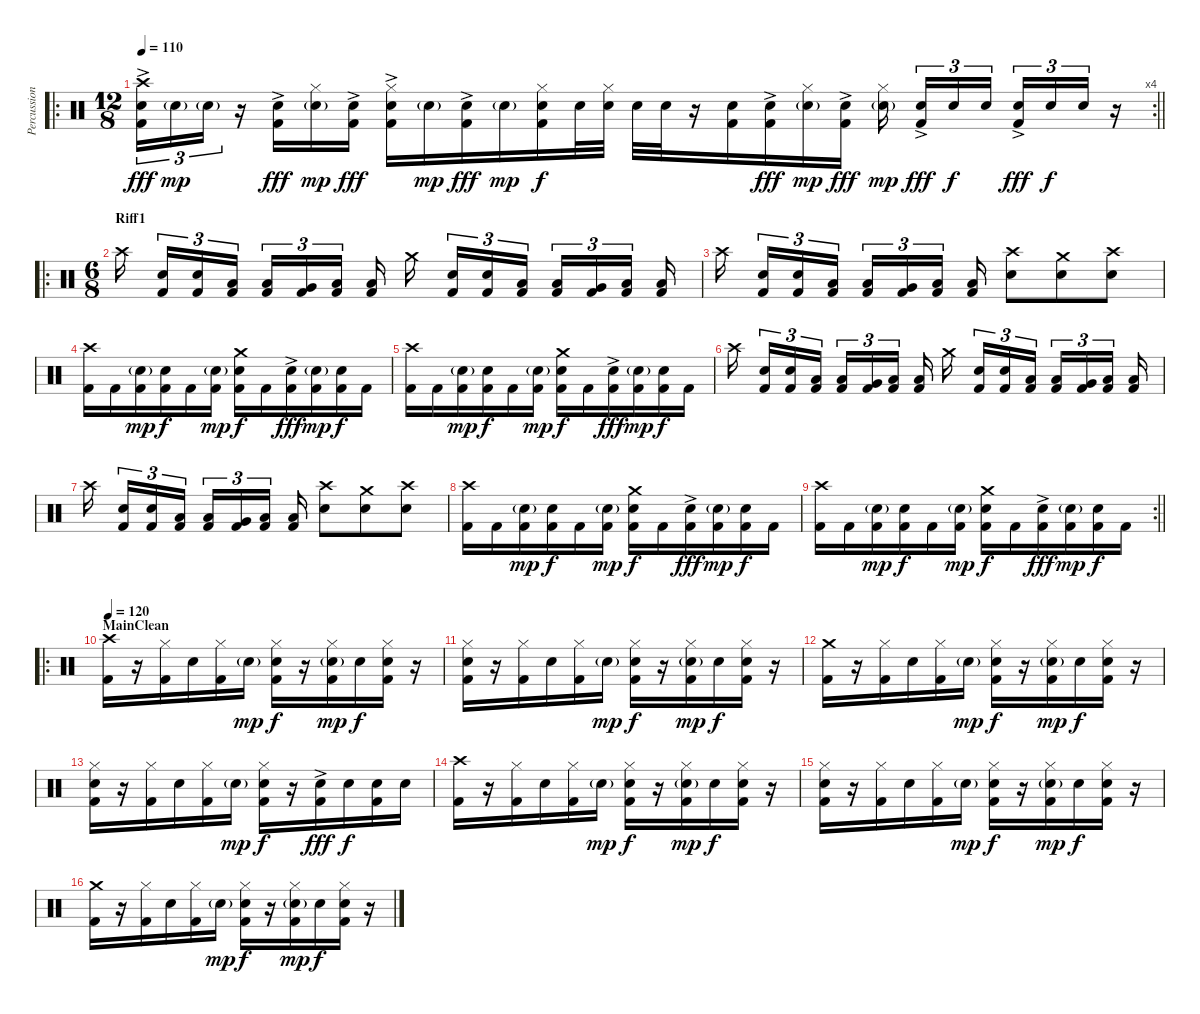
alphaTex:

\track ("Percussion" "Percussion") {instrument percussion}
\staff {score}
\articulation defaults
\ro
\rc 4
\ts (12 8)
\tempo 110
\clef neutral
\barLineRight lightlight
\ks c
("Crash high (hit)" "Snare (hit) 2"{ac} "Kick (hit) 2").16{tu (3 2) dy fff} "Snare (hit) 2"{g}.16{tu (3 2) dy mp} "Snare (hit) 2"{g}.16{tu (3 2)} r.16 ("Snare (hit) 2"{ac} "Kick (hit) 2").16{dy fff} ("Hi-Hat (closed)" "Snare (hit) 2"{g}).16{dy mp} ("Snare (hit) 2"{ac} "Kick (hit) 2").16{dy fff} ("Hi-Hat (closed)" "Snare (hit) 2"{ac} "Kick (hit) 2").16 "Snare (hit) 2"{g}.16{dy mp} ("Snare (hit) 2"{ac} "Kick (hit) 2").16{dy fff} "Snare (hit) 2"{g}.16{dy mp} ("Hi-Hat (closed)" "Snare (hit) 2" "Kick (hit) 2").16{dy f} "Snare (hit) 2".32 ("Hi-Hat (closed)" "Snare (hit) 2").32 "Snare (hit) 2".32 "Snare (hit) 2".32 r.16 ("Snare (hit) 2" "Kick (hit) 2").16 ("Snare (hit) 2"{ac} "Kick (hit) 2").16{dy fff} ("Hi-Hat (closed)" "Snare (hit) 2"{g}).16{dy mp} ("Snare (hit) 2"{ac} "Kick (hit) 2").16{dy fff} ("Hi-Hat (closed)" "Snare (hit) 2"{g}).16{dy mp} ("Snare (hit) 2"{ac} "Kick (hit) 2").16{tu (3 2) dy fff} "Snare (hit) 2".16{tu (3 2) dy f} "Snare (hit) 2".16{tu (3 2)} ("Snare (hit) 2"{ac} "Kick (hit) 2").16{tu (3 2) dy fff} "Snare (hit) 2".16{tu (3 2) dy f} "Snare (hit) 2".16{tu (3 2)} r.16 |
\ro
\ts (6 8)
\section ("" "Riff1")
"Crash high (hit)".16 ("Snare (hit) 2" "Kick (hit) 2").16{tu (3 2)} ("Snare (hit) 2" "Kick (hit) 2").16{tu (3 2)} ("Low Tom (hit)" "Kick (hit) 2").16{tu (3 2)} ("Low Tom (hit)" "Kick (hit) 2").16{tu (3 2)} ("Very Low Tom (hit)" "Kick (hit) 2").16{tu (3 2)} ("Low Floor Tom (hit)" "Kick (hit) 2").16{tu (3 2)} ("Low Floor Tom (hit)" "Kick (hit) 2").16 "Crash medium (hit)".16 ("Snare (hit) 2" "Kick (hit) 2").16{tu (3 2)} ("Snare (hit) 2" "Kick (hit) 2").16{tu (3 2)} ("Low Tom (hit)" "Kick (hit) 2").16{tu (3 2)} ("Low Tom (hit)" "Kick (hit) 2").16{tu (3 2)} ("Very Low Tom (hit)" "Kick (hit) 2").16{tu (3 2)} ("Low Floor Tom (hit)" "Kick (hit) 2").16{tu (3 2)} ("Low Floor Tom (hit)" "Kick (hit) 2").16 |
"Crash high (hit)".16 ("Snare (hit) 2" "Kick (hit) 2").16{tu (3 2)} ("Snare (hit) 2" "Kick (hit) 2").16{tu (3 2)} ("Low Tom (hit)" "Kick (hit) 2").16{tu (3 2)} ("Low Tom (hit)" "Kick (hit) 2").16{tu (3 2)} ("Very Low Tom (hit)" "Kick (hit) 2").16{tu (3 2)} ("Low Floor Tom (hit)" "Kick (hit) 2").16{tu (3 2)} ("Low Floor Tom (hit)" "Kick (hit) 2").16 ("Crash high (hit)" "Snare (hit) 2").8 ("Crash medium (hit)" "Snare (hit) 2").8 ("Crash high (hit)" "Snare (hit) 2").8 |
("Crash high (hit)" "Kick (hit) 2").16 "Kick (hit) 2".16 ("Snare (hit) 2"{g} "Kick (hit) 2").16{dy mp} ("Snare (hit) 2" "Kick (hit) 2").16{dy f} "Kick (hit) 2".16 ("Snare (hit) 2"{g} "Kick (hit) 2").16{dy mp} ("Crash medium (hit)" "Snare (hit) 2" "Kick (hit) 2").16{dy f} "Kick (hit) 2".16 ("Snare (hit) 2"{ac} "Kick (hit) 2").16{dy fff} ("Snare (hit) 2"{g} "Kick (hit) 2").16{dy mp} ("Snare (hit) 2" "Kick (hit) 2").16{dy f} "Kick (hit) 2".16 |
("Crash high (hit)" "Kick (hit) 2").16 "Kick (hit) 2".16 ("Snare (hit) 2"{g} "Kick (hit) 2").16{dy mp} ("Snare (hit) 2" "Kick (hit) 2").16{dy f} "Kick (hit) 2".16 ("Snare (hit) 2"{g} "Kick (hit) 2").16{dy mp} ("Crash medium (hit)" "Snare (hit) 2" "Kick (hit) 2").16{dy f} "Kick (hit) 2".16 ("Snare (hit) 2"{ac} "Kick (hit) 2").16{dy fff} ("Snare (hit) 2"{g} "Kick (hit) 2").16{dy mp} ("Snare (hit) 2" "Kick (hit) 2").16{dy f} "Kick (hit) 2".16 |
"Crash high (hit)".16 ("Snare (hit) 2" "Kick (hit) 2").16{tu (3 2)} ("Snare (hit) 2" "Kick (hit) 2").16{tu (3 2)} ("Low Tom (hit)" "Kick (hit) 2").16{tu (3 2)} ("Low Tom (hit)" "Kick (hit) 2").16{tu (3 2)} ("Very Low Tom (hit)" "Kick (hit) 2").16{tu (3 2)} ("Low Floor Tom (hit)" "Kick (hit) 2").16{tu (3 2)} ("Low Floor Tom (hit)" "Kick (hit) 2").16 "Crash medium (hit)".16 ("Snare (hit) 2" "Kick (hit) 2").16{tu (3 2)} ("Snare (hit) 2" "Kick (hit) 2").16{tu (3 2)} ("Low Tom (hit)" "Kick (hit) 2").16{tu (3 2)} ("Low Tom (hit)" "Kick (hit) 2").16{tu (3 2)} ("Very Low Tom (hit)" "Kick (hit) 2").16{tu (3 2)} ("Low Floor Tom (hit)" "Kick (hit) 2").16{tu (3 2)} ("Low Floor Tom (hit)" "Kick (hit) 2").16 |
"Crash high (hit)".16 ("Snare (hit) 2" "Kick (hit) 2").16{tu (3 2)} ("Snare (hit) 2" "Kick (hit) 2").16{tu (3 2)} ("Low Tom (hit)" "Kick (hit) 2").16{tu (3 2)} ("Low Tom (hit)" "Kick (hit) 2").16{tu (3 2)} ("Very Low Tom (hit)" "Kick (hit) 2").16{tu (3 2)} ("Low Floor Tom (hit)" "Kick (hit) 2").16{tu (3 2)} ("Low Floor Tom (hit)" "Kick (hit) 2").16 ("Crash high (hit)" "Snare (hit) 2").8 ("Crash medium (hit)" "Snare (hit) 2").8 ("Crash high (hit)" "Snare (hit) 2").8 |
("Crash high (hit)" "Kick (hit) 2").16 "Kick (hit) 2".16 ("Snare (hit) 2"{g} "Kick (hit) 2").16{dy mp} ("Snare (hit) 2" "Kick (hit) 2").16{dy f} "Kick (hit) 2".16 ("Snare (hit) 2"{g} "Kick (hit) 2").16{dy mp} ("Crash medium (hit)" "Snare (hit) 2" "Kick (hit) 2").16{dy f} "Kick (hit) 2".16 ("Snare (hit) 2"{ac} "Kick (hit) 2").16{dy fff} ("Snare (hit) 2"{g} "Kick (hit) 2").16{dy mp} ("Snare (hit) 2" "Kick (hit) 2").16{dy f} "Kick (hit) 2".16 |
\rc 2
\barLineRight lightlight
("Crash high (hit)" "Kick (hit) 2").16 "Kick (hit) 2".16 ("Snare (hit) 2"{g} "Kick (hit) 2").16{dy mp} ("Snare (hit) 2" "Kick (hit) 2").16{dy f} "Kick (hit) 2".16 ("Snare (hit) 2"{g} "Kick (hit) 2").16{dy mp} ("Crash medium (hit)" "Snare (hit) 2" "Kick (hit) 2").16{dy f} "Kick (hit) 2".16 ("Snare (hit) 2"{ac} "Kick (hit) 2").16{dy fff} ("Snare (hit) 2"{g} "Kick (hit) 2").16{dy mp} ("Snare (hit) 2" "Kick (hit) 2").16{dy f} "Kick (hit) 2".16 |
\ro
\section ("" "MainClean")
\tempo 120
("Crash high (hit)" "Kick (hit) 2").16 r.16 ("Hi-Hat (closed)" "Kick (hit) 2").16 "Snare (hit) 2".16 ("Hi-Hat (closed)" "Kick (hit) 2").16 "Snare (hit) 2"{g}.16{dy mp} ("Hi-Hat (closed)" "Snare (hit) 2" "Kick (hit) 2").16{dy f} r.16 ("Hi-Hat (closed)" "Snare (hit) 2"{g} "Kick (hit) 2").16{dy mp} "Snare (hit) 2".16{dy f} ("Hi-Hat (closed)" "Snare (hit) 2" "Kick (hit) 2").16 r.16 |
("Hi-Hat (closed)" "Snare (hit) 2" "Kick (hit) 2").16 r.16 ("Hi-Hat (closed)" "Kick (hit) 2").16 "Snare (hit) 2".16 ("Hi-Hat (closed)" "Kick (hit) 2").16 "Snare (hit) 2"{g}.16{dy mp} ("Hi-Hat (closed)" "Snare (hit) 2" "Kick (hit) 2").16{dy f} r.16 ("Hi-Hat (closed)" "Snare (hit) 2"{g} "Kick (hit) 2").16{dy mp} "Snare (hit) 2".16{dy f} ("Hi-Hat (closed)" "Snare (hit) 2" "Kick (hit) 2").16 r.16 |
("Crash medium (hit)" "Kick (hit) 2").16 r.16 ("Hi-Hat (closed)" "Kick (hit) 2").16 "Snare (hit) 2".16 ("Hi-Hat (closed)" "Kick (hit) 2").16 "Snare (hit) 2"{g}.16{dy mp} ("Hi-Hat (closed)" "Snare (hit) 2" "Kick (hit) 2").16{dy f} r.16 ("Hi-Hat (closed)" "Snare (hit) 2"{g} "Kick (hit) 2").16{dy mp} "Snare (hit) 2".16{dy f} ("Hi-Hat (closed)" "Snare (hit) 2" "Kick (hit) 2").16 r.16 |
("Hi-Hat (closed)" "Snare (hit) 2" "Kick (hit) 2").16 r.16 ("Hi-Hat (closed)" "Kick (hit) 2").16 "Snare (hit) 2".16 ("Hi-Hat (closed)" "Kick (hit) 2").16 "Snare (hit) 2"{g}.16{dy mp} ("Hi-Hat (closed)" "Snare (hit) 2" "Kick (hit) 2").16{dy f} r.16 ("Snare (hit) 2"{ac} "Kick (hit) 2").16{dy fff} "Snare (hit) 2".16{dy f} ("Snare (hit) 2" "Kick (hit) 2").16 "Snare (hit) 2".16 |
("Crash high (hit)" "Kick (hit) 2").16 r.16 ("Hi-Hat (closed)" "Kick (hit) 2").16 "Snare (hit) 2".16 ("Hi-Hat (closed)" "Kick (hit) 2").16 "Snare (hit) 2"{g}.16{dy mp} ("Hi-Hat (closed)" "Snare (hit) 2" "Kick (hit) 2").16{dy f} r.16 ("Hi-Hat (closed)" "Snare (hit) 2"{g} "Kick (hit) 2").16{dy mp} "Snare (hit) 2".16{dy f} ("Hi-Hat (closed)" "Snare (hit) 2" "Kick (hit) 2").16 r.16 |
("Hi-Hat (closed)" "Snare (hit) 2" "Kick (hit) 2").16 r.16 ("Hi-Hat (closed)" "Kick (hit) 2").16 "Snare (hit) 2".16 ("Hi-Hat (closed)" "Kick (hit) 2").16 "Snare (hit) 2"{g}.16{dy mp} ("Hi-Hat (closed)" "Snare (hit) 2" "Kick (hit) 2").16{dy f} r.16 ("Hi-Hat (closed)" "Snare (hit) 2"{g} "Kick (hit) 2").16{dy mp} "Snare (hit) 2".16{dy f} ("Hi-Hat (closed)" "Snare (hit) 2" "Kick (hit) 2").16 r.16 |
("Crash medium (hit)" "Kick (hit) 2").16 r.16 ("Hi-Hat (closed)" "Kick (hit) 2").16 "Snare (hit) 2".16 ("Hi-Hat (closed)" "Kick (hit) 2").16 "Snare (hit) 2"{g}.16{dy mp} ("Hi-Hat (closed)" "Snare (hit) 2" "Kick (hit) 2").16{dy f} r.16 ("Hi-Hat (closed)" "Snare (hit) 2"{g} "Kick (hit) 2").16{dy mp} "Snare (hit) 2".16{dy f} ("Hi-Hat (closed)" "Snare (hit) 2" "Kick (hit) 2").16 r.16
